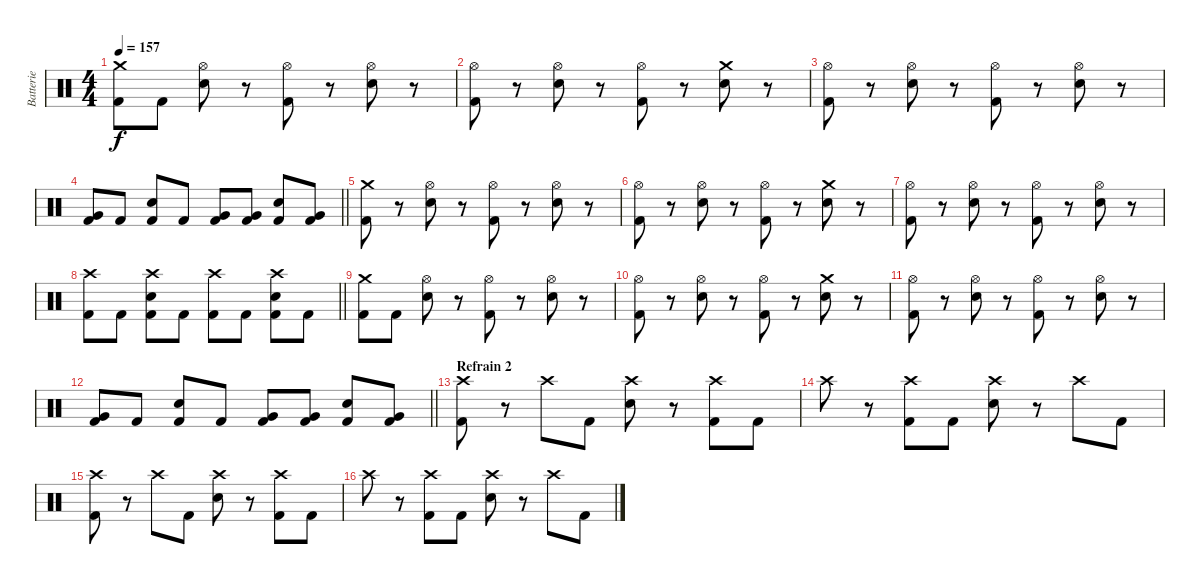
\track ("Batterie" "Batterie") {instrument percussion}
\staff {score}
\articulation defaults
\ts (4 4)
\tempo 157
\clef neutral
\ks c
("Kick (hit) 2" "Crash medium (hit)").8{dy f} "Kick (hit) 2".8 ("Electric Snare (hit)" "Hi-Hat (open)").8 r.8 ("Kick (hit) 2" "Hi-Hat (open)").8 r.8 ("Electric Snare (hit)" "Hi-Hat (open)").8 r.8 |
("Kick (hit) 2" "Hi-Hat (open)").8 r.8 ("Electric Snare (hit)" "Hi-Hat (open)").8 r.8 ("Kick (hit) 2" "Hi-Hat (open)").8 r.8 ("Electric Snare (hit)" "Crash medium (hit)").8 r.8 |
("Kick (hit) 2" "Hi-Hat (open)").8 r.8 ("Electric Snare (hit)" "Hi-Hat (open)").8 r.8 ("Kick (hit) 2" "Hi-Hat (open)").8 r.8 ("Electric Snare (hit)" "Hi-Hat (open)").8 r.8 |
\barLineRight lightlight
("Kick (hit) 2" "Very Low Tom (hit)").8 "Kick (hit) 2".8 ("Kick (hit) 2" "Electric Snare (hit)").8 "Kick (hit) 2".8 ("Kick (hit) 2" "Very Low Tom (hit)").8 ("Kick (hit) 2" "Very Low Tom (hit)").8 ("Kick (hit) 2" "Electric Snare (hit)").8 ("Kick (hit) 2" "Very Low Tom (hit)").8 |
("Kick (hit) 2" "Crash medium (hit)").8 r.8 ("Electric Snare (hit)" "Hi-Hat (open)").8 r.8 ("Kick (hit) 2" "Hi-Hat (open)").8 r.8 ("Electric Snare (hit)" "Hi-Hat (open)").8 r.8 |
("Kick (hit) 2" "Hi-Hat (open)").8 r.8 ("Electric Snare (hit)" "Hi-Hat (open)").8 r.8 ("Kick (hit) 2" "Hi-Hat (open)").8 r.8 ("Electric Snare (hit)" "Crash medium (hit)").8 r.8 |
("Kick (hit) 2" "Hi-Hat (open)").8 r.8 ("Electric Snare (hit)" "Hi-Hat (open)").8 r.8 ("Kick (hit) 2" "Hi-Hat (open)").8 r.8 ("Electric Snare (hit)" "Hi-Hat (open)").8 r.8 |
\barLineRight lightlight
("Kick (hit) 2" "Crash high (hit)").8 "Kick (hit) 2".8 ("Kick (hit) 2" "Electric Snare (hit)" "Crash high (hit)").8 "Kick (hit) 2".8 ("Kick (hit) 2" "Crash high (hit)").8 "Kick (hit) 2".8 ("Kick (hit) 2" "Electric Snare (hit)" "Crash high (hit)").8 "Kick (hit) 2".8 |
("Kick (hit) 2" "Crash medium (hit)").8 "Kick (hit) 2".8 ("Electric Snare (hit)" "Hi-Hat (open)").8 r.8 ("Kick (hit) 2" "Hi-Hat (open)").8 r.8 ("Electric Snare (hit)" "Hi-Hat (open)").8 r.8 |
("Kick (hit) 2" "Hi-Hat (open)").8 r.8 ("Electric Snare (hit)" "Hi-Hat (open)").8 r.8 ("Kick (hit) 2" "Hi-Hat (open)").8 r.8 ("Electric Snare (hit)" "Crash medium (hit)").8 r.8 |
("Kick (hit) 2" "Hi-Hat (open)").8 r.8 ("Electric Snare (hit)" "Hi-Hat (open)").8 r.8 ("Kick (hit) 2" "Hi-Hat (open)").8 r.8 ("Electric Snare (hit)" "Hi-Hat (open)").8 r.8 |
\barLineRight lightlight
("Kick (hit) 2" "Very Low Tom (hit)").8 "Kick (hit) 2".8 ("Kick (hit) 2" "Electric Snare (hit)").8 "Kick (hit) 2".8 ("Kick (hit) 2" "Very Low Tom (hit)").8 ("Kick (hit) 2" "Very Low Tom (hit)").8 ("Kick (hit) 2" "Electric Snare (hit)").8 ("Kick (hit) 2" "Very Low Tom (hit)").8 |
\section ("" "Refrain 2")
("Kick (hit) 2" "Crash high (hit)").8 r.8 "Crash high (hit)".8 "Kick (hit) 2".8 ("Electric Snare (hit)" "Crash high (hit)").8 r.8 ("Kick (hit) 2" "Crash high (hit)").8 "Kick (hit) 2".8 |
"Crash high (hit)".8 r.8 ("Kick (hit) 2" "Crash high (hit)").8 "Kick (hit) 2".8 ("Electric Snare (hit)" "Crash high (hit)").8 r.8 "Crash high (hit)".8 "Kick (hit) 2".8 |
("Kick (hit) 2" "Crash high (hit)").8 r.8 "Crash high (hit)".8 "Kick (hit) 2".8 ("Electric Snare (hit)" "Crash high (hit)").8 r.8 ("Kick (hit) 2" "Crash high (hit)").8 "Kick (hit) 2".8 |
"Crash high (hit)".8 r.8 ("Kick (hit) 2" "Crash high (hit)").8 "Kick (hit) 2".8 ("Electric Snare (hit)" "Crash high (hit)").8 r.8 "Crash high (hit)".8 "Kick (hit) 2".8
